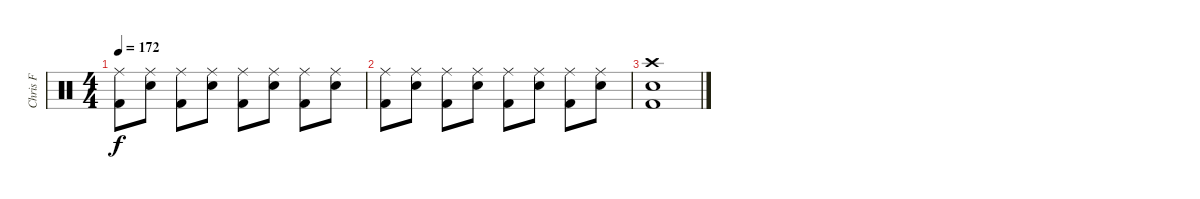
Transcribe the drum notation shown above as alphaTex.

\track ("Chris F" "Chris F") {instrument percussion}
\staff {score}
\articulation defaults
\ts (4 4)
\tempo 172
\clef neutral
\ks c
("Ride (middle)" "Kick (hit) 2").8{dy f} ("Ride (middle)" "Electric Snare (hit)").8 ("Ride (middle)" "Kick (hit) 2").8 ("Ride (middle)" "Electric Snare (hit)").8 ("Ride (middle)" "Kick (hit) 2").8 ("Ride (middle)" "Electric Snare (hit)").8 ("Ride (middle)" "Kick (hit) 2").8 ("Ride (middle)" "Electric Snare (hit)").8 |
("Ride (middle)" "Kick (hit) 2").8 ("Ride (middle)" "Electric Snare (hit)").8 ("Ride (middle)" "Kick (hit) 2").8 ("Ride (middle)" "Electric Snare (hit)").8 ("Ride (middle)" "Kick (hit) 2").8 ("Ride (middle)" "Electric Snare (hit)").8 ("Ride (middle)" "Kick (hit) 2").8 ("Ride (middle)" "Electric Snare (hit)").8 |
("Crash high (hit)" "Electric Snare (hit)" "Kick (hit) 2").1
